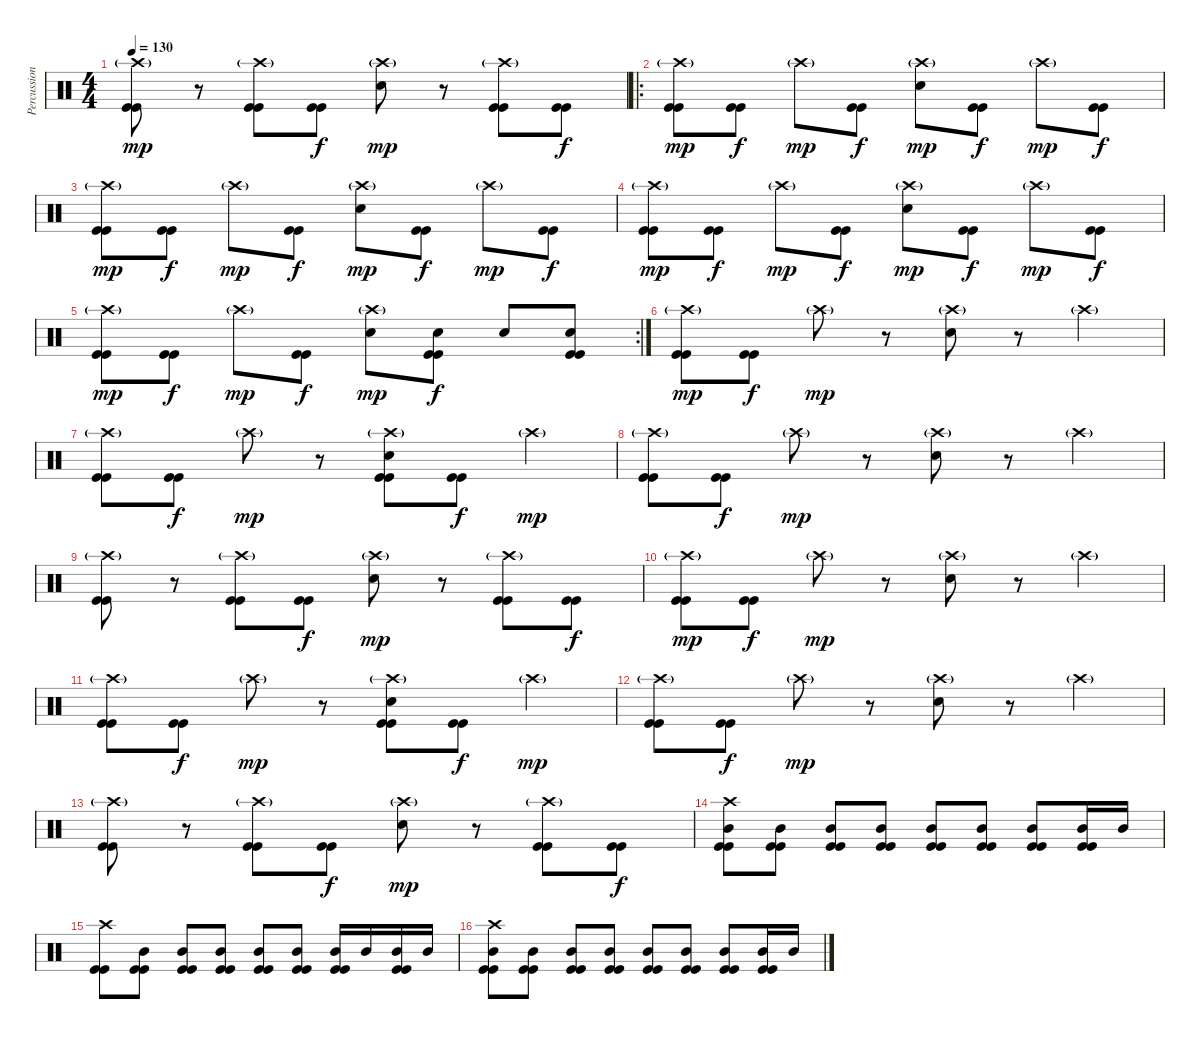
\track ("Percussions" "Percussion") {instrument percussion}
\staff {score}
\articulation defaults
\ts (4 4)
\tempo 130
\clef neutral
\ks c
("Crash high (hit)"{g} "Kick (hit)" "Kick (hit)").8{dy mp} r.8 ("Crash high (hit)"{g} "Kick (hit)" "Kick (hit)").8 ("Kick (hit)" "Kick (hit)").8{dy f} ("Crash high (hit)"{g} "Electric Snare (hit)").8{dy mp} r.8 ("Crash high (hit)"{g} "Kick (hit)" "Kick (hit)").8 ("Kick (hit)" "Kick (hit)").8{dy f} |
\ro
("Crash high (hit)"{g} "Kick (hit)" "Kick (hit)").8{dy mp} ("Kick (hit)" "Kick (hit)").8{dy f} "Crash high (hit)"{g}.8{dy mp} ("Kick (hit)" "Kick (hit)").8{dy f} ("Crash high (hit)"{g} "Electric Snare (hit)").8{dy mp} ("Kick (hit)" "Kick (hit)").8{dy f} "Crash high (hit)"{g}.8{dy mp} ("Kick (hit)" "Kick (hit)").8{dy f} |
("Crash high (hit)"{g} "Kick (hit)" "Kick (hit)").8{dy mp} ("Kick (hit)" "Kick (hit)").8{dy f} "Crash high (hit)"{g}.8{dy mp} ("Kick (hit)" "Kick (hit)").8{dy f} ("Crash high (hit)"{g} "Electric Snare (hit)").8{dy mp} ("Kick (hit)" "Kick (hit)").8{dy f} "Crash high (hit)"{g}.8{dy mp} ("Kick (hit)" "Kick (hit)").8{dy f} |
("Crash high (hit)"{g} "Kick (hit)" "Kick (hit)").8{dy mp} ("Kick (hit)" "Kick (hit)").8{dy f} "Crash high (hit)"{g}.8{dy mp} ("Kick (hit)" "Kick (hit)").8{dy f} ("Crash high (hit)"{g} "Electric Snare (hit)").8{dy mp} ("Kick (hit)" "Kick (hit)").8{dy f} "Crash high (hit)"{g}.8{dy mp} ("Kick (hit)" "Kick (hit)").8{dy f} |
\rc 2
("Crash high (hit)"{g} "Kick (hit)" "Kick (hit)").8{dy mp} ("Kick (hit)" "Kick (hit)").8{dy f} "Crash high (hit)"{g}.8{dy mp} ("Kick (hit)" "Kick (hit)").8{dy f} ("Crash high (hit)"{g} "Electric Snare (hit)").8{dy mp} ("Electric Snare (hit)" "Kick (hit)" "Kick (hit)").8{dy f} "Electric Snare (hit)".8 ("Electric Snare (hit)" "Kick (hit)" "Kick (hit)").8 |
("Crash high (hit)"{g} "Kick (hit)" "Kick (hit)").8{dy mp} ("Kick (hit)" "Kick (hit)").8{dy f} "Crash high (hit)"{g}.8{dy mp} r.8 ("Crash high (hit)"{g} "Electric Snare (hit)").8 r.8 "Crash high (hit)"{g}.4 |
("Crash high (hit)"{g} "Kick (hit)" "Kick (hit)").8 ("Kick (hit)" "Kick (hit)").8{dy f} "Crash high (hit)"{g}.8{dy mp} r.8 ("Crash high (hit)"{g} "Electric Snare (hit)" "Kick (hit)" "Kick (hit)").8 ("Kick (hit)" "Kick (hit)").8{dy f} "Crash high (hit)"{g}.4{dy mp} |
("Crash high (hit)"{g} "Kick (hit)" "Kick (hit)").8 ("Kick (hit)" "Kick (hit)").8{dy f} "Crash high (hit)"{g}.8{dy mp} r.8 ("Crash high (hit)"{g} "Electric Snare (hit)").8 r.8 "Crash high (hit)"{g}.4 |
("Crash high (hit)"{g} "Kick (hit)" "Kick (hit)").8 r.8 ("Crash high (hit)"{g} "Kick (hit)" "Kick (hit)").8 ("Kick (hit)" "Kick (hit)").8{dy f} ("Crash high (hit)"{g} "Electric Snare (hit)").8{dy mp} r.8 ("Crash high (hit)"{g} "Kick (hit)" "Kick (hit)").8 ("Kick (hit)" "Kick (hit)").8{dy f} |
("Crash high (hit)"{g} "Kick (hit)" "Kick (hit)").8{dy mp} ("Kick (hit)" "Kick (hit)").8{dy f} "Crash high (hit)"{g}.8{dy mp} r.8 ("Crash high (hit)"{g} "Electric Snare (hit)").8 r.8 "Crash high (hit)"{g}.4 |
("Crash high (hit)"{g} "Kick (hit)" "Kick (hit)").8 ("Kick (hit)" "Kick (hit)").8{dy f} "Crash high (hit)"{g}.8{dy mp} r.8 ("Crash high (hit)"{g} "Electric Snare (hit)" "Kick (hit)" "Kick (hit)").8 ("Kick (hit)" "Kick (hit)").8{dy f} "Crash high (hit)"{g}.4{dy mp} |
("Crash high (hit)"{g} "Kick (hit)" "Kick (hit)").8 ("Kick (hit)" "Kick (hit)").8{dy f} "Crash high (hit)"{g}.8{dy mp} r.8 ("Crash high (hit)"{g} "Electric Snare (hit)").8 r.8 "Crash high (hit)"{g}.4 |
("Crash high (hit)"{g} "Kick (hit)" "Kick (hit)").8 r.8 ("Crash high (hit)"{g} "Kick (hit)" "Kick (hit)").8 ("Kick (hit)" "Kick (hit)").8{dy f} ("Crash high (hit)"{g} "Electric Snare (hit)").8{dy mp} r.8 ("Crash high (hit)"{g} "Kick (hit)" "Kick (hit)").8 ("Kick (hit)" "Kick (hit)").8{dy f} |
("Crash high (hit)" "Mid Tom (hit)" "Kick (hit)" "Kick (hit)").8 ("Mid Tom (hit)" "Kick (hit)" "Kick (hit)").8 ("Mid Tom (hit)" "Kick (hit)" "Kick (hit)").8 ("Mid Tom (hit)" "Kick (hit)" "Kick (hit)").8 ("Mid Tom (hit)" "Kick (hit)" "Kick (hit)").8 ("Mid Tom (hit)" "Kick (hit)" "Kick (hit)").8 ("Mid Tom (hit)" "Kick (hit)" "Kick (hit)").8 ("Mid Tom (hit)" "Kick (hit)" "Kick (hit)").16 "Mid Tom (hit)".16 |
("Crash high (hit)" "Kick (hit)" "Kick (hit)").8 ("Mid Tom (hit)" "Kick (hit)" "Kick (hit)").8 ("Mid Tom (hit)" "Kick (hit)" "Kick (hit)").8 ("Mid Tom (hit)" "Kick (hit)" "Kick (hit)").8 ("Mid Tom (hit)" "Kick (hit)" "Kick (hit)").8 ("Mid Tom (hit)" "Kick (hit)" "Kick (hit)").8 ("Mid Tom (hit)" "Kick (hit)" "Kick (hit)").16 "Mid Tom (hit)".16 ("Mid Tom (hit)" "Kick (hit)" "Kick (hit)").16 "Mid Tom (hit)".16 |
("Crash high (hit)" "Mid Tom (hit)" "Kick (hit)" "Kick (hit)").8 ("Mid Tom (hit)" "Kick (hit)" "Kick (hit)").8 ("Mid Tom (hit)" "Kick (hit)" "Kick (hit)").8 ("Mid Tom (hit)" "Kick (hit)" "Kick (hit)").8 ("Mid Tom (hit)" "Kick (hit)" "Kick (hit)").8 ("Mid Tom (hit)" "Kick (hit)" "Kick (hit)").8 ("Mid Tom (hit)" "Kick (hit)" "Kick (hit)").8 ("Mid Tom (hit)" "Kick (hit)" "Kick (hit)").16 "Mid Tom (hit)".16
